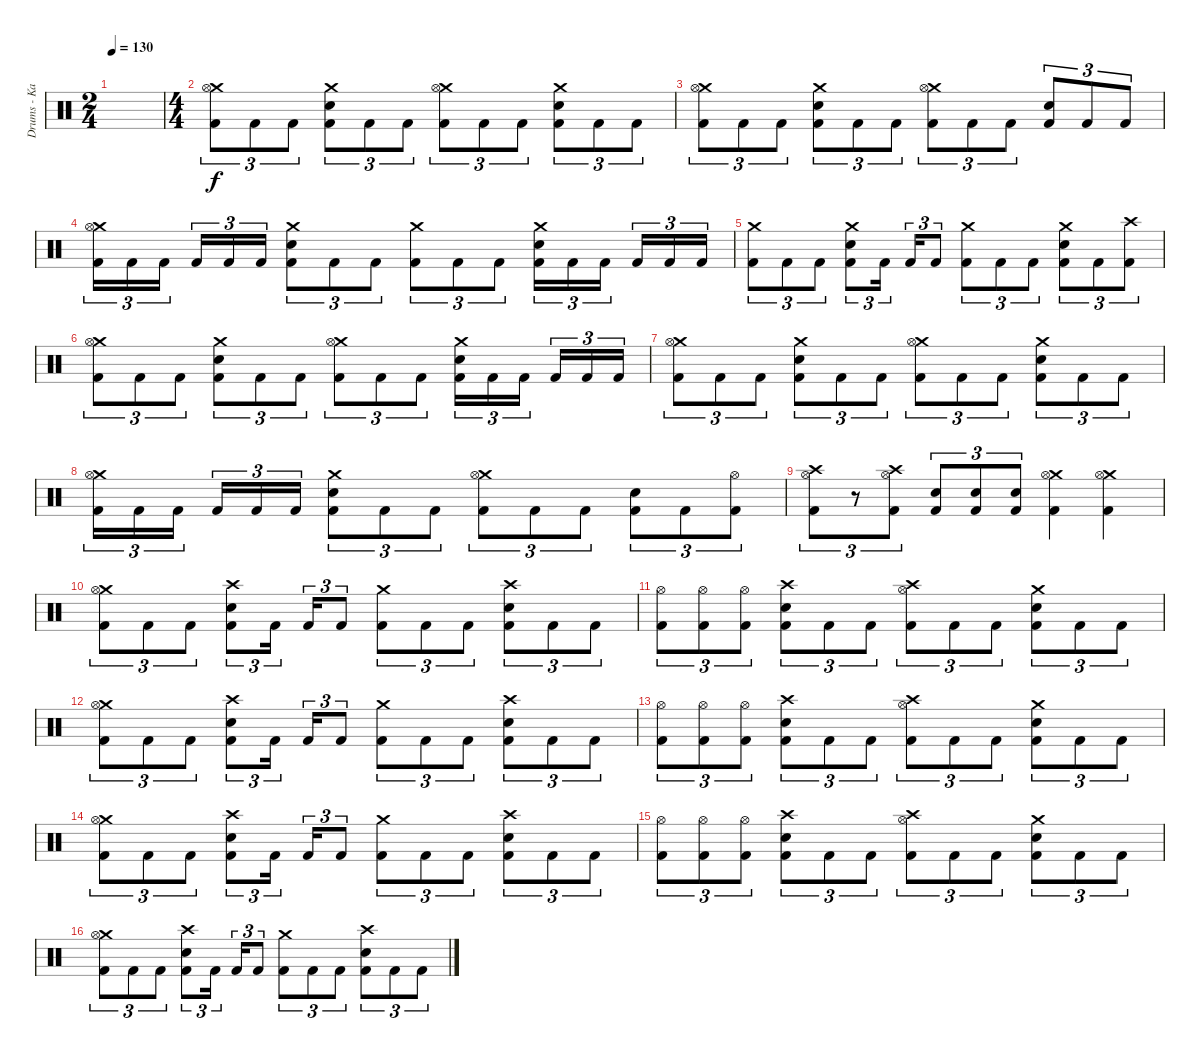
\track ("Drums - Kai Hahto " "Drums - Ka") {instrument percussion}
\staff {score}
\articulation defaults
\ts (2 4)
\tempo 130
\clef neutral
\ks c
|
\ts (4 4)
("Crash medium (hit)" "Hi-Hat (open)" "Kick (hit) 2").8{tu (3 2)} "Kick (hit) 2".8{tu (3 2)} "Kick (hit) 2".8{tu (3 2)} ("Crash medium (hit)" "Snare (hit) 2" "Kick (hit) 2").8{tu (3 2)} "Kick (hit) 2".8{tu (3 2)} "Kick (hit) 2".8{tu (3 2)} ("Crash medium (hit)" "Hi-Hat (open)" "Kick (hit) 2").8{tu (3 2)} "Kick (hit) 2".8{tu (3 2)} "Kick (hit) 2".8{tu (3 2)} ("Crash medium (hit)" "Snare (hit) 2" "Kick (hit) 2").8{tu (3 2)} "Kick (hit) 2".8{tu (3 2)} "Kick (hit) 2".8{tu (3 2)} |
("Crash medium (hit)" "Hi-Hat (open)" "Kick (hit) 2").8{tu (3 2)} "Kick (hit) 2".8{tu (3 2)} "Kick (hit) 2".8{tu (3 2)} ("Crash medium (hit)" "Snare (hit) 2" "Kick (hit) 2").8{tu (3 2)} "Kick (hit) 2".8{tu (3 2)} "Kick (hit) 2".8{tu (3 2)} ("Crash medium (hit)" "Hi-Hat (open)" "Kick (hit) 2").8{tu (3 2)} "Kick (hit) 2".8{tu (3 2)} "Kick (hit) 2".8{tu (3 2)} ("Snare (hit) 2" "Kick (hit) 2").8{tu (3 2)} "Kick (hit) 2".8{tu (3 2)} "Kick (hit) 2".8{tu (3 2)} |
("Crash medium (hit)" "Hi-Hat (open)" "Kick (hit) 2").16{tu (3 2)} "Kick (hit) 2".16{tu (3 2)} "Kick (hit) 2".16{tu (3 2) beam splitsecondary} "Kick (hit) 2".16{tu (3 2)} "Kick (hit) 2".16{tu (3 2)} "Kick (hit) 2".16{tu (3 2)} ("Crash medium (hit)" "Snare (hit) 2" "Kick (hit) 2").8{tu (3 2)} "Kick (hit) 2".8{tu (3 2)} "Kick (hit) 2".8{tu (3 2)} ("Crash medium (hit)" "Kick (hit) 2").8{tu (3 2)} "Kick (hit) 2".8{tu (3 2)} "Kick (hit) 2".8{tu (3 2)} ("Crash medium (hit)" "Snare (hit) 2" "Kick (hit) 2").16{tu (3 2)} "Kick (hit) 2".16{tu (3 2)} "Kick (hit) 2".16{tu (3 2) beam splitsecondary} "Kick (hit) 2".16{tu (3 2)} "Kick (hit) 2".16{tu (3 2)} "Kick (hit) 2".16{tu (3 2)} |
("Crash medium (hit)" "Kick (hit) 2").8{tu (3 2)} "Kick (hit) 2".8{tu (3 2)} "Kick (hit) 2".8{tu (3 2)} ("Crash medium (hit)" "Snare (hit) 2" "Kick (hit) 2").8{tu (3 2)} "Kick (hit) 2".16{tu (3 2) beam splitsecondary} "Kick (hit) 2".16{tu (3 2)} "Kick (hit) 2".8{tu (3 2)} ("Crash medium (hit)" "Kick (hit) 2").8{tu (3 2)} "Kick (hit) 2".8{tu (3 2)} "Kick (hit) 2".8{tu (3 2)} ("Crash medium (hit)" "Snare (hit) 2" "Kick (hit) 2").8{tu (3 2)} "Kick (hit) 2".8{tu (3 2)} ("Crash high (hit)" "Kick (hit) 2").8{tu (3 2)} |
("Crash medium (hit)" "Hi-Hat (open)" "Kick (hit) 2").8{tu (3 2)} "Kick (hit) 2".8{tu (3 2)} "Kick (hit) 2".8{tu (3 2)} ("Crash medium (hit)" "Snare (hit) 2" "Kick (hit) 2").8{tu (3 2)} "Kick (hit) 2".8{tu (3 2)} "Kick (hit) 2".8{tu (3 2)} ("Crash medium (hit)" "Hi-Hat (open)" "Kick (hit) 2").8{tu (3 2)} "Kick (hit) 2".8{tu (3 2)} "Kick (hit) 2".8{tu (3 2)} ("Crash medium (hit)" "Snare (hit) 2" "Kick (hit) 2").16{tu (3 2)} "Kick (hit) 2".16{tu (3 2)} "Kick (hit) 2".16{tu (3 2) beam splitsecondary} "Kick (hit) 2".16{tu (3 2)} "Kick (hit) 2".16{tu (3 2)} "Kick (hit) 2".16{tu (3 2)} |
("Crash medium (hit)" "Hi-Hat (open)" "Kick (hit) 2").8{tu (3 2)} "Kick (hit) 2".8{tu (3 2)} "Kick (hit) 2".8{tu (3 2)} ("Crash medium (hit)" "Snare (hit) 2" "Kick (hit) 2").8{tu (3 2)} "Kick (hit) 2".8{tu (3 2)} "Kick (hit) 2".8{tu (3 2)} ("Crash medium (hit)" "Hi-Hat (open)" "Kick (hit) 2").8{tu (3 2)} "Kick (hit) 2".8{tu (3 2)} "Kick (hit) 2".8{tu (3 2)} ("Crash medium (hit)" "Snare (hit) 2" "Kick (hit) 2").8{tu (3 2)} "Kick (hit) 2".8{tu (3 2)} "Kick (hit) 2".8{tu (3 2)} |
("Crash medium (hit)" "Hi-Hat (open)" "Kick (hit) 2").16{tu (3 2)} "Kick (hit) 2".16{tu (3 2)} "Kick (hit) 2".16{tu (3 2) beam splitsecondary} "Kick (hit) 2".16{tu (3 2)} "Kick (hit) 2".16{tu (3 2)} "Kick (hit) 2".16{tu (3 2)} ("Crash medium (hit)" "Snare (hit) 2" "Kick (hit) 2").8{tu (3 2)} "Kick (hit) 2".8{tu (3 2)} "Kick (hit) 2".8{tu (3 2)} ("Crash medium (hit)" "Hi-Hat (open)" "Kick (hit) 2").8{tu (3 2)} "Kick (hit) 2".8{tu (3 2)} "Kick (hit) 2".8{tu (3 2)} ("Snare (hit) 2" "Kick (hit) 2").8{tu (3 2)} "Kick (hit) 2".8{tu (3 2)} ("Hi-Hat (open)" "Kick (hit) 2").8{tu (3 2)} |
("Crash high (hit)" "Hi-Hat (open)" "Kick (hit) 2").8{tu (3 2)} r.8{tu (3 2)} ("Crash high (hit)" "Hi-Hat (open)" "Kick (hit) 2").8{tu (3 2)} ("Snare (hit) 2" "Kick (hit) 2").8{tu (3 2)} ("Snare (hit) 2" "Kick (hit) 2").8{tu (3 2)} ("Snare (hit) 2" "Kick (hit) 2").8{tu (3 2)} ("Crash medium (hit)" "Hi-Hat (open)" "Kick (hit) 2").4 ("Crash medium (hit)" "Hi-Hat (open)" "Kick (hit) 2").4 |
("Crash medium (hit)" "Hi-Hat (open)" "Kick (hit) 2").8{tu (3 2)} "Kick (hit) 2".8{tu (3 2)} "Kick (hit) 2".8{tu (3 2)} ("Crash high (hit)" "Snare (hit) 2" "Kick (hit) 2").8{tu (3 2)} "Kick (hit) 2".16{tu (3 2) beam splitsecondary} "Kick (hit) 2".16{tu (3 2)} "Kick (hit) 2".8{tu (3 2)} ("Crash medium (hit)" "Kick (hit) 2").8{tu (3 2)} "Kick (hit) 2".8{tu (3 2)} "Kick (hit) 2".8{tu (3 2)} ("Crash high (hit)" "Snare (hit) 2" "Kick (hit) 2").8{tu (3 2)} "Kick (hit) 2".8{tu (3 2)} "Kick (hit) 2".8{tu (3 2)} |
("Hi-Hat (open)" "Kick (hit) 2").8{tu (3 2)} ("Hi-Hat (open)" "Kick (hit) 2").8{tu (3 2)} ("Hi-Hat (open)" "Kick (hit) 2").8{tu (3 2)} ("Crash high (hit)" "Snare (hit) 2" "Kick (hit) 2").8{tu (3 2)} "Kick (hit) 2".8{tu (3 2)} "Kick (hit) 2".8{tu (3 2)} ("Crash high (hit)" "Hi-Hat (open)" "Kick (hit) 2").8{tu (3 2)} "Kick (hit) 2".8{tu (3 2)} "Kick (hit) 2".8{tu (3 2)} ("Crash medium (hit)" "Snare (hit) 2" "Kick (hit) 2").8{tu (3 2)} "Kick (hit) 2".8{tu (3 2)} "Kick (hit) 2".8{tu (3 2)} |
("Crash medium (hit)" "Hi-Hat (open)" "Kick (hit) 2").8{tu (3 2)} "Kick (hit) 2".8{tu (3 2)} "Kick (hit) 2".8{tu (3 2)} ("Crash high (hit)" "Snare (hit) 2" "Kick (hit) 2").8{tu (3 2)} "Kick (hit) 2".16{tu (3 2) beam splitsecondary} "Kick (hit) 2".16{tu (3 2)} "Kick (hit) 2".8{tu (3 2)} ("Crash medium (hit)" "Kick (hit) 2").8{tu (3 2)} "Kick (hit) 2".8{tu (3 2)} "Kick (hit) 2".8{tu (3 2)} ("Crash high (hit)" "Snare (hit) 2" "Kick (hit) 2").8{tu (3 2)} "Kick (hit) 2".8{tu (3 2)} "Kick (hit) 2".8{tu (3 2)} |
("Hi-Hat (open)" "Kick (hit) 2").8{tu (3 2)} ("Hi-Hat (open)" "Kick (hit) 2").8{tu (3 2)} ("Hi-Hat (open)" "Kick (hit) 2").8{tu (3 2)} ("Crash high (hit)" "Snare (hit) 2" "Kick (hit) 2").8{tu (3 2)} "Kick (hit) 2".8{tu (3 2)} "Kick (hit) 2".8{tu (3 2)} ("Crash high (hit)" "Hi-Hat (open)" "Kick (hit) 2").8{tu (3 2)} "Kick (hit) 2".8{tu (3 2)} "Kick (hit) 2".8{tu (3 2)} ("Crash medium (hit)" "Snare (hit) 2" "Kick (hit) 2").8{tu (3 2)} "Kick (hit) 2".8{tu (3 2)} "Kick (hit) 2".8{tu (3 2)} |
("Crash medium (hit)" "Hi-Hat (open)" "Kick (hit) 2").8{tu (3 2)} "Kick (hit) 2".8{tu (3 2)} "Kick (hit) 2".8{tu (3 2)} ("Crash high (hit)" "Snare (hit) 2" "Kick (hit) 2").8{tu (3 2)} "Kick (hit) 2".16{tu (3 2) beam splitsecondary} "Kick (hit) 2".16{tu (3 2)} "Kick (hit) 2".8{tu (3 2)} ("Crash medium (hit)" "Kick (hit) 2").8{tu (3 2)} "Kick (hit) 2".8{tu (3 2)} "Kick (hit) 2".8{tu (3 2)} ("Crash high (hit)" "Snare (hit) 2" "Kick (hit) 2").8{tu (3 2)} "Kick (hit) 2".8{tu (3 2)} "Kick (hit) 2".8{tu (3 2)} |
("Hi-Hat (open)" "Kick (hit) 2").8{tu (3 2)} ("Hi-Hat (open)" "Kick (hit) 2").8{tu (3 2)} ("Hi-Hat (open)" "Kick (hit) 2").8{tu (3 2)} ("Crash high (hit)" "Snare (hit) 2" "Kick (hit) 2").8{tu (3 2)} "Kick (hit) 2".8{tu (3 2)} "Kick (hit) 2".8{tu (3 2)} ("Crash high (hit)" "Hi-Hat (open)" "Kick (hit) 2").8{tu (3 2)} "Kick (hit) 2".8{tu (3 2)} "Kick (hit) 2".8{tu (3 2)} ("Crash medium (hit)" "Snare (hit) 2" "Kick (hit) 2").8{tu (3 2)} "Kick (hit) 2".8{tu (3 2)} "Kick (hit) 2".8{tu (3 2)} |
("Crash medium (hit)" "Hi-Hat (open)" "Kick (hit) 2").8{tu (3 2)} "Kick (hit) 2".8{tu (3 2)} "Kick (hit) 2".8{tu (3 2)} ("Crash high (hit)" "Snare (hit) 2" "Kick (hit) 2").8{tu (3 2)} "Kick (hit) 2".16{tu (3 2) beam splitsecondary} "Kick (hit) 2".16{tu (3 2)} "Kick (hit) 2".8{tu (3 2)} ("Crash medium (hit)" "Kick (hit) 2").8{tu (3 2)} "Kick (hit) 2".8{tu (3 2)} "Kick (hit) 2".8{tu (3 2)} ("Crash high (hit)" "Snare (hit) 2" "Kick (hit) 2").8{tu (3 2)} "Kick (hit) 2".8{tu (3 2)} "Kick (hit) 2".8{tu (3 2)}
